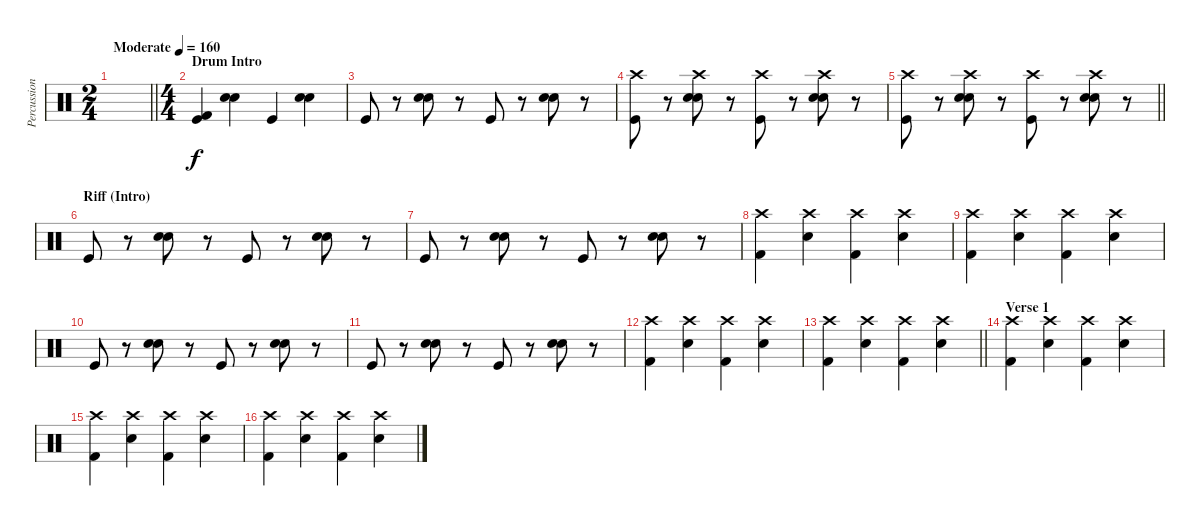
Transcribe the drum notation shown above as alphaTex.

\track ("Percussion" "Percussion") {solo instrument percussion}
\staff {score}
\articulation defaults
\ts (2 4)
\tempo (160 "Moderate")
\clef neutral
\barLineRight lightlight
\ks c
|
\ts (4 4)
\section ("" "Drum Intro")
("Kick (hit)" "Kick (hit) 2").4 ("Hand Clap (hit)" "Snare (hit) 2").4 "Kick (hit)".4 ("Hand Clap (hit)" "Snare (hit) 2").4 |
"Kick (hit)".8 r.8 ("Hand Clap (hit)" "Snare (hit) 2").8 r.8 "Kick (hit)".8 r.8 ("Hand Clap (hit)" "Snare (hit) 2").8 r.8 |
("Crash high (hit)" "Kick (hit)").8 r.8 ("Crash high (hit)" "Hand Clap (hit)" "Snare (hit) 2").8 r.8 ("Crash high (hit)" "Kick (hit)").8 r.8 ("Crash high (hit)" "Hand Clap (hit)" "Snare (hit) 2").8 r.8 |
\barLineRight lightlight
("Crash high (hit)" "Kick (hit)").8 r.8 ("Crash high (hit)" "Hand Clap (hit)" "Snare (hit) 2").8 r.8 ("Crash high (hit)" "Kick (hit)").8 r.8 ("Crash high (hit)" "Hand Clap (hit)" "Snare (hit) 2").8 r.8 |
\section ("" "Riff (Intro)")
"Kick (hit)".8 r.8 ("Hand Clap (hit)" "Snare (hit) 2").8 r.8 "Kick (hit)".8 r.8 ("Hand Clap (hit)" "Snare (hit) 2").8 r.8 |
"Kick (hit)".8 r.8 ("Hand Clap (hit)" "Snare (hit) 2").8 r.8 "Kick (hit)".8 r.8 ("Hand Clap (hit)" "Snare (hit) 2").8 r.8 |
("Crash high (hit)" "Kick (hit) 2").4 ("Crash high (hit)" "Snare (hit) 2").4 ("Crash high (hit)" "Kick (hit) 2").4 ("Crash high (hit)" "Snare (hit) 2").4 |
("Crash high (hit)" "Kick (hit) 2").4 ("Crash high (hit)" "Snare (hit) 2").4 ("Crash high (hit)" "Kick (hit) 2").4 ("Crash high (hit)" "Snare (hit) 2").4 |
"Kick (hit)".8 r.8 ("Hand Clap (hit)" "Snare (hit) 2").8 r.8 "Kick (hit)".8 r.8 ("Hand Clap (hit)" "Snare (hit) 2").8 r.8 |
"Kick (hit)".8 r.8 ("Hand Clap (hit)" "Snare (hit) 2").8 r.8 "Kick (hit)".8 r.8 ("Hand Clap (hit)" "Snare (hit) 2").8 r.8 |
("Crash high (hit)" "Kick (hit) 2").4 ("Crash high (hit)" "Snare (hit) 2").4 ("Crash high (hit)" "Kick (hit) 2").4 ("Crash high (hit)" "Snare (hit) 2").4 |
\barLineRight lightlight
("Crash high (hit)" "Kick (hit) 2").4 ("Crash high (hit)" "Snare (hit) 2").4 ("Crash high (hit)" "Kick (hit) 2").4 ("Crash high (hit)" "Snare (hit) 2").4 |
\section ("" "Verse 1")
("Crash high (hit)" "Kick (hit) 2").4 ("Crash high (hit)" "Snare (hit) 2").4 ("Crash high (hit)" "Kick (hit) 2").4 ("Crash high (hit)" "Snare (hit) 2").4 |
("Crash high (hit)" "Kick (hit) 2").4 ("Crash high (hit)" "Snare (hit) 2").4 ("Crash high (hit)" "Kick (hit) 2").4 ("Crash high (hit)" "Snare (hit) 2").4 |
("Crash high (hit)" "Kick (hit) 2").4 ("Crash high (hit)" "Snare (hit) 2").4 ("Crash high (hit)" "Kick (hit) 2").4 ("Crash high (hit)" "Snare (hit) 2").4
